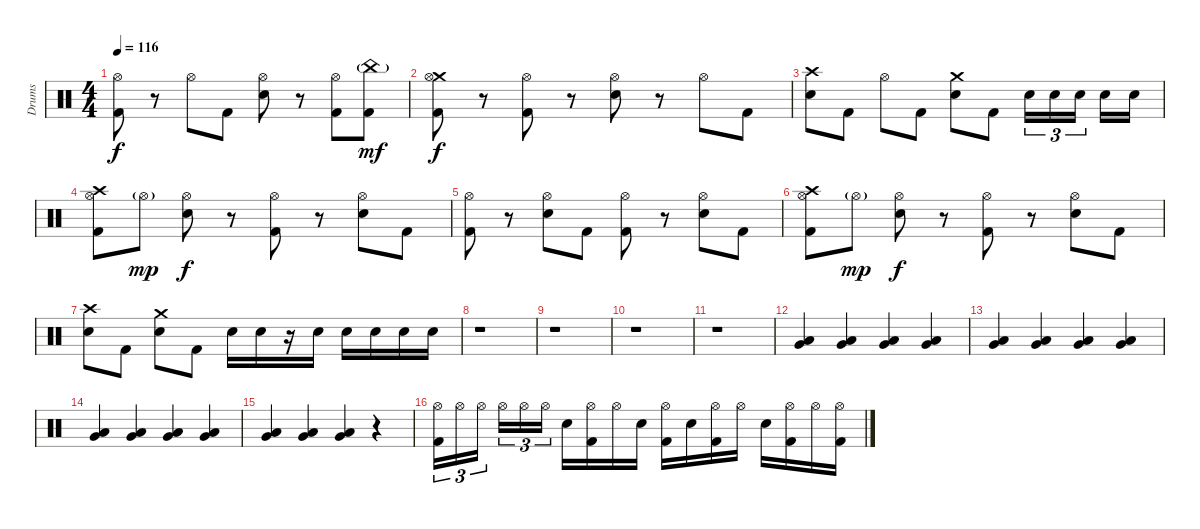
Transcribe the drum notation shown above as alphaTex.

\track ("Drums" "Drums") {instrument percussion}
\staff {score}
\articulation defaults
\ts (4 4)
\tempo 116
\clef neutral
\ks c
("Hi-Hat (open)" "Kick (hit) 2").8{dy f} r.8 "Hi-Hat (open)".8 "Kick (hit) 2".8 ("Hi-Hat (open)" "Snare (hit) 2").8 r.8 ("Hi-Hat (open)" "Kick (hit) 2").8 ("China (hit)"{g} "Kick (hit) 2").8{dy mf} |
("Crash medium (hit)" "Hi-Hat (open)" "Kick (hit) 2").8{dy f} r.8 ("Hi-Hat (open)" "Kick (hit) 2").8 r.8 ("Hi-Hat (open)" "Snare (hit) 2").8 r.8 "Hi-Hat (open)".8 "Kick (hit) 2".8 |
("Crash high (hit)" "Snare (hit) 2").8 "Kick (hit) 2".8 "Hi-Hat (open)".8 "Kick (hit) 2".8 ("Crash medium (hit)" "Snare (hit) 2").8 "Kick (hit) 2".8 "Snare (hit) 2".16{tu (3 2)} "Snare (hit) 2".16{tu (3 2)} "Snare (hit) 2".16{tu (3 2)} "Snare (hit) 2".16 "Snare (hit) 2".16 |
("Crash high (hit)" "Hi-Hat (open)" "Kick (hit) 2").8 "Hi-Hat (open)"{g}.8{dy mp} ("Hi-Hat (open)" "Snare (hit) 2").8{dy f} r.8 ("Hi-Hat (open)" "Kick (hit) 2").8 r.8 ("Hi-Hat (open)" "Snare (hit) 2").8 "Kick (hit) 2".8 |
("Hi-Hat (open)" "Kick (hit) 2").8 r.8 ("Hi-Hat (open)" "Snare (hit) 2").8 "Kick (hit) 2".8 ("Hi-Hat (open)" "Kick (hit) 2").8 r.8 ("Hi-Hat (open)" "Snare (hit) 2").8 "Kick (hit) 2".8 |
("Crash high (hit)" "Hi-Hat (open)" "Kick (hit) 2").8 "Hi-Hat (open)"{g}.8{dy mp} ("Hi-Hat (open)" "Snare (hit) 2").8{dy f} r.8 ("Hi-Hat (open)" "Kick (hit) 2").8 r.8 ("Hi-Hat (open)" "Snare (hit) 2").8 "Kick (hit) 2".8 |
("Crash high (hit)" "Snare (hit) 2").8 "Kick (hit) 2".8 ("Crash medium (hit)" "Snare (hit) 2").8 "Kick (hit) 2".8 "Snare (hit) 2".16 "Snare (hit) 2".16 r.16 "Snare (hit) 2".16 "Snare (hit) 2".16 "Snare (hit) 2".16 "Snare (hit) 2".16 "Snare (hit) 2".16 |
r.1 |
r.1 |
r.1 |
r.1 |
("Low Tom (hit)" "Very Low Tom (hit)").4 ("Low Tom (hit)" "Very Low Tom (hit)").4 ("Low Tom (hit)" "Very Low Tom (hit)").4 ("Low Tom (hit)" "Very Low Tom (hit)").4 |
("Low Tom (hit)" "Very Low Tom (hit)").4 ("Low Tom (hit)" "Very Low Tom (hit)").4 ("Low Tom (hit)" "Very Low Tom (hit)").4 ("Low Tom (hit)" "Very Low Tom (hit)").4 |
("Low Tom (hit)" "Very Low Tom (hit)").4 ("Low Tom (hit)" "Very Low Tom (hit)").4 ("Low Tom (hit)" "Very Low Tom (hit)").4 ("Low Tom (hit)" "Very Low Tom (hit)").4 |
("Low Tom (hit)" "Very Low Tom (hit)").4 ("Low Tom (hit)" "Very Low Tom (hit)").4 ("Low Tom (hit)" "Very Low Tom (hit)").4 r.4 |
("Hi-Hat (open)" "Kick (hit) 2").16{tu (3 2)} "Hi-Hat (open)".16{tu (3 2)} "Hi-Hat (open)".16{tu (3 2)} "Hi-Hat (open)".16{tu (3 2)} "Hi-Hat (open)".16{tu (3 2)} "Hi-Hat (open)".16{tu (3 2)} "Snare (hit) 2".16 ("Hi-Hat (open)" "Kick (hit) 2").16 "Hi-Hat (open)".16 "Snare (hit) 2".16 ("Hi-Hat (open)" "Kick (hit) 2").16 "Snare (hit) 2".16 ("Hi-Hat (open)" "Kick (hit) 2").16 "Hi-Hat (open)".16 "Snare (hit) 2".16 ("Hi-Hat (open)" "Kick (hit) 2").16 "Hi-Hat (open)".16 ("Hi-Hat (open)" "Kick (hit) 2").16
